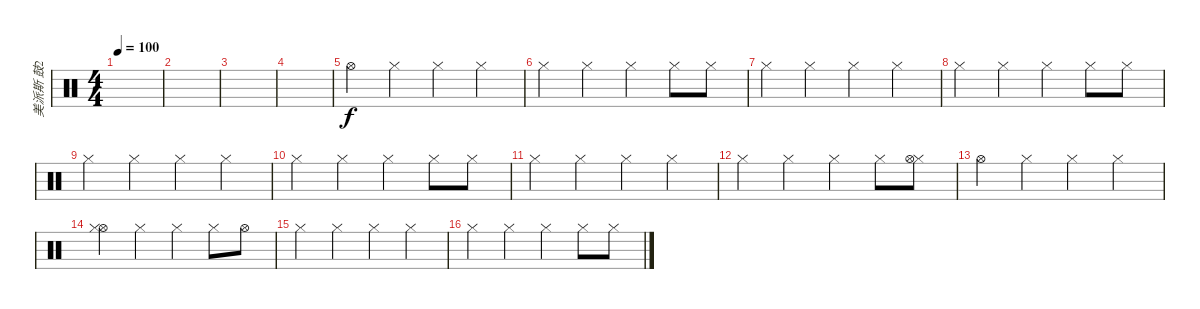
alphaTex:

\track ("美派斯 鼓2" "美派斯 鼓2") {instrument percussion}
\staff {score}
\articulation defaults
\ts (4 4)
\tempo 100
\clef neutral
\ks c
|
|
|
|
"Hi-Hat (open)".4 "Hi-Hat (closed)".4 "Hi-Hat (closed)".4 "Hi-Hat (closed)".4 |
"Hi-Hat (closed)".4 "Hi-Hat (closed)".4 "Hi-Hat (closed)".4 "Hi-Hat (closed)".8 "Hi-Hat (closed)".8 |
"Hi-Hat (closed)".4 "Hi-Hat (closed)".4 "Hi-Hat (closed)".4 "Hi-Hat (closed)".4 |
"Hi-Hat (closed)".4 "Hi-Hat (closed)".4 "Hi-Hat (closed)".4 "Hi-Hat (closed)".8 "Hi-Hat (closed)".8 |
"Hi-Hat (closed)".4 "Hi-Hat (closed)".4 "Hi-Hat (closed)".4 "Hi-Hat (closed)".4 |
"Hi-Hat (closed)".4 "Hi-Hat (closed)".4 "Hi-Hat (closed)".4 "Hi-Hat (closed)".8 "Hi-Hat (closed)".8 |
"Hi-Hat (closed)".4 "Hi-Hat (closed)".4 "Hi-Hat (closed)".4 "Hi-Hat (closed)".4 |
"Hi-Hat (closed)".4 "Hi-Hat (closed)".4 "Hi-Hat (closed)".4 "Hi-Hat (closed)".8 ("Hi-Hat (closed)" "Hi-Hat (open)").8 |
"Hi-Hat (open)".4 "Hi-Hat (closed)".4 "Hi-Hat (closed)".4 "Hi-Hat (closed)".4 |
("Hi-Hat (open)" "Hi-Hat (closed)").4 "Hi-Hat (closed)".4 "Hi-Hat (closed)".4 "Hi-Hat (closed)".8 "Hi-Hat (open)".8 |
"Hi-Hat (closed)".4 "Hi-Hat (closed)".4 "Hi-Hat (closed)".4 "Hi-Hat (closed)".4 |
"Hi-Hat (closed)".4 "Hi-Hat (closed)".4 "Hi-Hat (closed)".4 "Hi-Hat (closed)".8 "Hi-Hat (closed)".8
